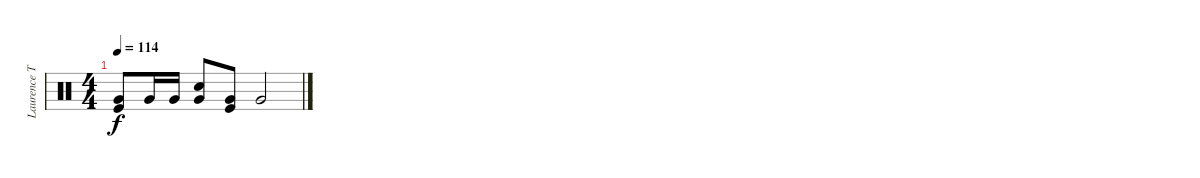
\track ("Laurence Tolhurst (drums)" "Laurence T") {instrument percussion}
\staff {score}
\articulation defaults
\ts (4 4)
\tempo 114
\clef neutral
\ks c
("Very Low Tom (hit)" "Kick (hit)").8{dy f} "Very Low Tom (hit)".16 "Very Low Tom (hit)".16 ("Very Low Tom (hit)" "Snare (hit) 2").8 ("Very Low Tom (hit)" "Kick (hit)").8 "Very Low Tom (hit)".2
